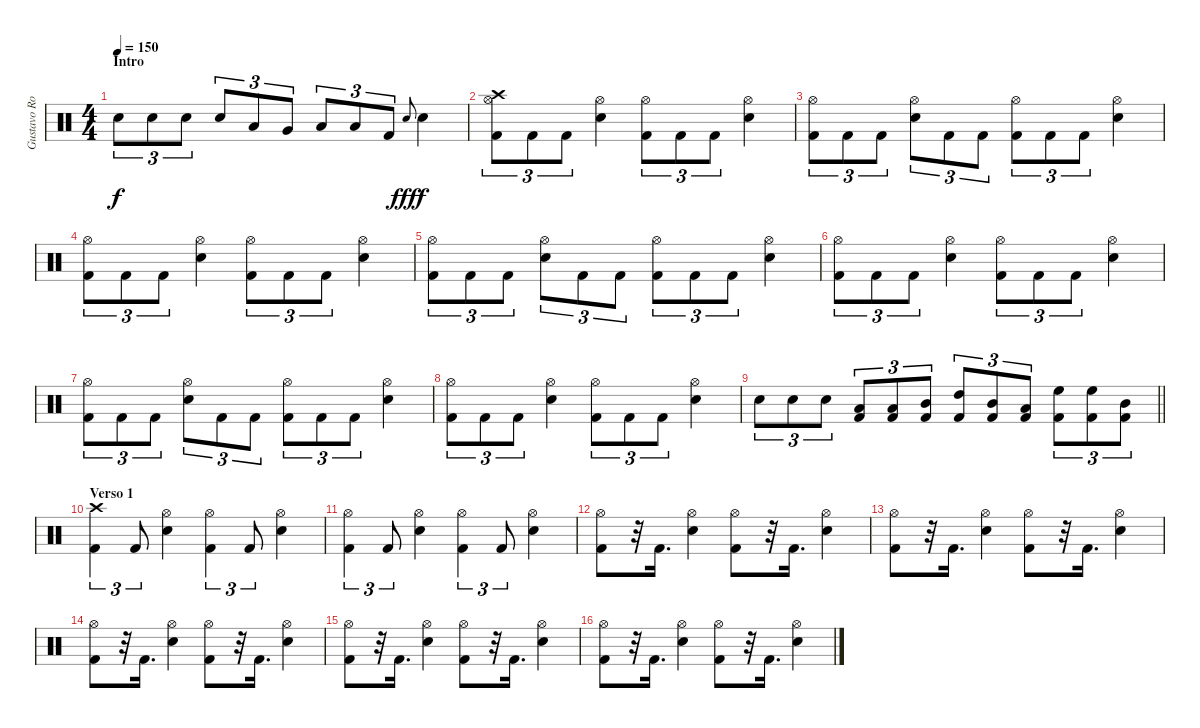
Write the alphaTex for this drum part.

\track ("Gustavo Rowek" "Gustavo Ro") {instrument percussion}
\staff {score}
\articulation defaults
\ts (4 4)
\section ("" "Intro")
\tempo 150
\clef neutral
\ks c "Electric Snare (hit)".8{tu (3 2) dy f} "Electric Snare (hit)".8{tu (3 2)} "Electric Snare (hit)".8{tu (3 2)} "Electric Snare (hit)".8{tu (3 2)} "Low Tom (hit)".8{tu (3 2)} "Very Low Tom (hit)".8{tu (3 2)} "Low Floor Tom (hit)".8{tu (3 2)} "Low Floor Tom (hit)".8{tu (3 2)} "Kick (hit) 2".8{tu (3 2)} "Electric Snare (hit)"{h}.8{gr onbeat dy fff} "Electric Snare (hit)".4{dy f}
|
("Crash high (hit)" "Hi-Hat (open)" "Kick (hit) 2").8{tu (3 2)} "Kick (hit) 2".8{tu (3 2)} "Kick (hit) 2".8{tu (3 2)} ("Hi-Hat (open)" "Electric Snare (hit)").4 ("Hi-Hat (open)" "Kick (hit) 2").8{tu (3 2)} "Kick (hit) 2".8{tu (3 2)} "Kick (hit) 2".8{tu (3 2)} ("Hi-Hat (open)" "Electric Snare (hit)").4 |
("Hi-Hat (open)" "Kick (hit) 2").8{tu (3 2)} "Kick (hit) 2".8{tu (3 2)} "Kick (hit) 2".8{tu (3 2)} ("Hi-Hat (open)" "Electric Snare (hit)").8{tu (3 2)} "Kick (hit) 2".8{tu (3 2)} "Kick (hit) 2".8{tu (3 2)} ("Hi-Hat (open)" "Kick (hit) 2").8{tu (3 2)} "Kick (hit) 2".8{tu (3 2)} "Kick (hit) 2".8{tu (3 2)} ("Hi-Hat (open)" "Electric Snare (hit)").4 |
("Hi-Hat (open)" "Kick (hit) 2").8{tu (3 2)} "Kick (hit) 2".8{tu (3 2)} "Kick (hit) 2".8{tu (3 2)} ("Hi-Hat (open)" "Electric Snare (hit)").4 ("Hi-Hat (open)" "Kick (hit) 2").8{tu (3 2)} "Kick (hit) 2".8{tu (3 2)} "Kick (hit) 2".8{tu (3 2)} ("Hi-Hat (open)" "Electric Snare (hit)").4 |
("Hi-Hat (open)" "Kick (hit) 2").8{tu (3 2)} "Kick (hit) 2".8{tu (3 2)} "Kick (hit) 2".8{tu (3 2)} ("Hi-Hat (open)" "Electric Snare (hit)").8{tu (3 2)} "Kick (hit) 2".8{tu (3 2)} "Kick (hit) 2".8{tu (3 2)} ("Hi-Hat (open)" "Kick (hit) 2").8{tu (3 2)} "Kick (hit) 2".8{tu (3 2)} "Kick (hit) 2".8{tu (3 2)} ("Hi-Hat (open)" "Electric Snare (hit)").4 |
("Hi-Hat (open)" "Kick (hit) 2").8{tu (3 2)} "Kick (hit) 2".8{tu (3 2)} "Kick (hit) 2".8{tu (3 2)} ("Hi-Hat (open)" "Electric Snare (hit)").4 ("Hi-Hat (open)" "Kick (hit) 2").8{tu (3 2)} "Kick (hit) 2".8{tu (3 2)} "Kick (hit) 2".8{tu (3 2)} ("Hi-Hat (open)" "Electric Snare (hit)").4 |
("Hi-Hat (open)" "Kick (hit) 2").8{tu (3 2)} "Kick (hit) 2".8{tu (3 2)} "Kick (hit) 2".8{tu (3 2)} ("Hi-Hat (open)" "Electric Snare (hit)").8{tu (3 2)} "Kick (hit) 2".8{tu (3 2)} "Kick (hit) 2".8{tu (3 2)} ("Hi-Hat (open)" "Kick (hit) 2").8{tu (3 2)} "Kick (hit) 2".8{tu (3 2)} "Kick (hit) 2".8{tu (3 2)} ("Hi-Hat (open)" "Electric Snare (hit)").4 |
("Hi-Hat (open)" "Kick (hit) 2").8{tu (3 2)} "Kick (hit) 2".8{tu (3 2)} "Kick (hit) 2".8{tu (3 2)} ("Hi-Hat (open)" "Electric Snare (hit)").4 ("Hi-Hat (open)" "Kick (hit) 2").8{tu (3 2)} "Kick (hit) 2".8{tu (3 2)} "Kick (hit) 2".8{tu (3 2)} ("Hi-Hat (open)" "Electric Snare (hit)").4 |
\barLineRight lightlight "Electric Snare (hit)".8{tu (3 2)} "Electric Snare (hit)".8{tu (3 2)} "Electric Snare (hit)".8{tu (3 2)}
("Low Tom (hit)" "Kick (hit) 2").8{tu (3 2)} ("Low Tom (hit)" "Kick (hit) 2").8{tu (3 2)} ("Mid Tom (hit)" "Kick (hit) 2").8{tu (3 2)} ("High Tom (hit)" "Kick (hit) 2").8{tu (3 2)} ("Mid Tom (hit)" "Kick (hit) 2").8{tu (3 2)} ("Low Tom (hit)" "Kick (hit) 2").8{tu (3 2)} ("High Floor Tom (hit)" "Kick (hit) 2").8{tu (3 2)} ("High Floor Tom (hit)" "Kick (hit) 2").8{tu (3 2)} ("Mid Tom (hit)" "Kick (hit) 2").8{tu (3 2)} |
\section ("" "Verso 1")
("Crash high (hit)" "Kick (hit) 2").4{tu (3 2)} "Kick (hit) 2".8{tu (3 2)} ("Hi-Hat (open)" "Electric Snare (hit)").4 ("Hi-Hat (open)" "Kick (hit) 2").4{tu (3 2)} "Kick (hit) 2".8{tu (3 2)} ("Hi-Hat (open)" "Electric Snare (hit)").4 |
("Hi-Hat (open)" "Kick (hit) 2").4{tu (3 2)} "Kick (hit) 2".8{tu (3 2)} ("Hi-Hat (open)" "Electric Snare (hit)").4 ("Hi-Hat (open)" "Kick (hit) 2").4{tu (3 2)} "Kick (hit) 2".8{tu (3 2)} ("Hi-Hat (open)" "Electric Snare (hit)").4 |
("Hi-Hat (open)" "Kick (hit) 2").8 r.32 "Kick (hit) 2".16{d} ("Hi-Hat (open)" "Electric Snare (hit)").4 ("Hi-Hat (open)" "Kick (hit) 2").8 r.32 "Kick (hit) 2".16{d} ("Hi-Hat (open)" "Electric Snare (hit)").4 |
("Hi-Hat (open)" "Kick (hit) 2").8 r.32 "Kick (hit) 2".16{d} ("Hi-Hat (open)" "Electric Snare (hit)").4 ("Hi-Hat (open)" "Kick (hit) 2").8 r.32 "Kick (hit) 2".16{d} ("Hi-Hat (open)" "Electric Snare (hit)").4 |
("Hi-Hat (open)" "Kick (hit) 2").8 r.32 "Kick (hit) 2".16{d} ("Hi-Hat (open)" "Electric Snare (hit)").4 ("Hi-Hat (open)" "Kick (hit) 2").8 r.32 "Kick (hit) 2".16{d} ("Hi-Hat (open)" "Electric Snare (hit)").4 |
("Hi-Hat (open)" "Kick (hit) 2").8 r.32 "Kick (hit) 2".16{d} ("Hi-Hat (open)" "Electric Snare (hit)").4 ("Hi-Hat (open)" "Kick (hit) 2").8 r.32 "Kick (hit) 2".16{d} ("Hi-Hat (open)" "Electric Snare (hit)").4 |
("Hi-Hat (open)" "Kick (hit) 2").8 r.32 "Kick (hit) 2".16{d} ("Hi-Hat (open)" "Electric Snare (hit)").4 ("Hi-Hat (open)" "Kick (hit) 2").8 r.32 "Kick (hit) 2".16{d} ("Hi-Hat (open)" "Electric Snare (hit)").4
